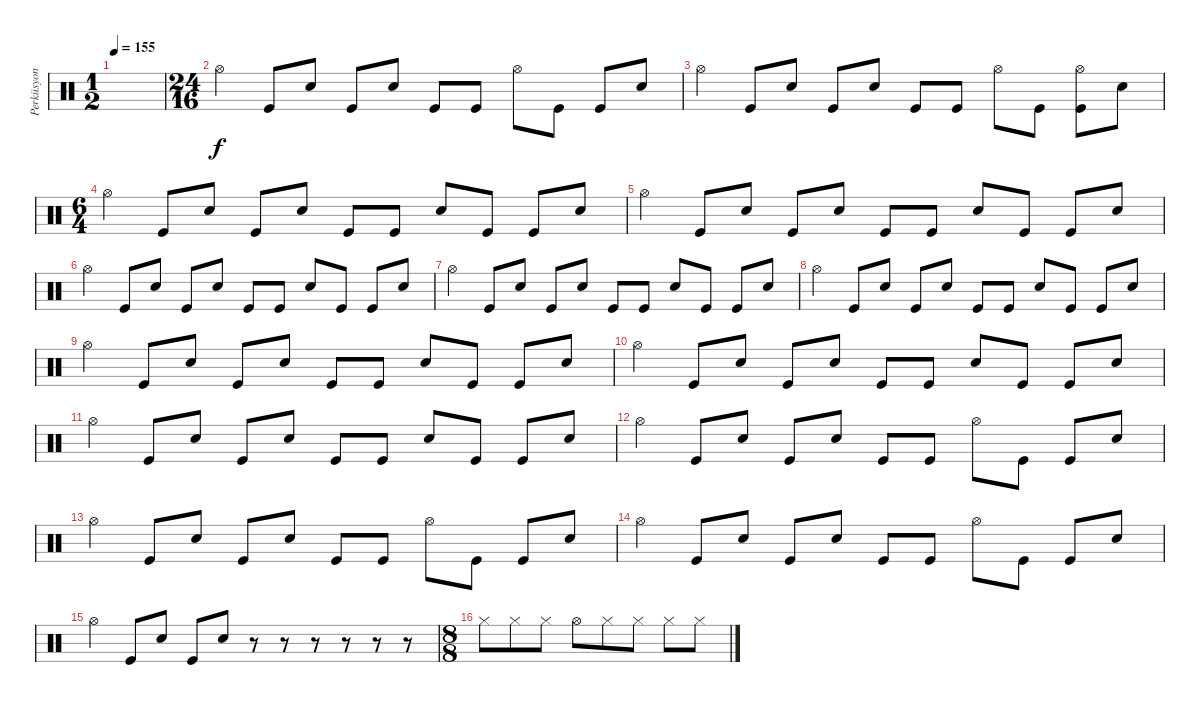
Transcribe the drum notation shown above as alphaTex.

\track ("Perküsyon" "Perküsyon") {instrument percussion}
\staff {score}
\articulation defaults
\ts (1 2)
\tempo 155
\clef neutral
\ks c
|
\ts (24 16)
"Hi-Hat (open)".4 "Kick (hit)".8 "Electric Snare (hit)".8 "Kick (hit)".8 "Electric Snare (hit)".8 "Kick (hit)".8 "Kick (hit)".8 "Hi-Hat (open)".8 "Kick (hit)".8 "Kick (hit)".8 "Electric Snare (hit)".8 |
"Hi-Hat (open)".4 "Kick (hit)".8 "Electric Snare (hit)".8 "Kick (hit)".8 "Electric Snare (hit)".8 "Kick (hit)".8 "Kick (hit)".8 "Hi-Hat (open)".8 "Kick (hit)".8 ("Hi-Hat (open)" "Kick (hit)").8 "Electric Snare (hit)".8 |
\ts (6 4)
"Hi-Hat (open)".4 "Kick (hit)".8 "Electric Snare (hit)".8 "Kick (hit)".8 "Electric Snare (hit)".8 "Kick (hit)".8 "Kick (hit)".8 "Electric Snare (hit)".8 "Kick (hit)".8 "Kick (hit)".8 "Electric Snare (hit)".8 |
"Hi-Hat (open)".4 "Kick (hit)".8 "Electric Snare (hit)".8 "Kick (hit)".8 "Electric Snare (hit)".8 "Kick (hit)".8 "Kick (hit)".8 "Electric Snare (hit)".8 "Kick (hit)".8 "Kick (hit)".8 "Electric Snare (hit)".8 |
"Hi-Hat (open)".4 "Kick (hit)".8 "Electric Snare (hit)".8 "Kick (hit)".8 "Electric Snare (hit)".8 "Kick (hit)".8 "Kick (hit)".8 "Electric Snare (hit)".8 "Kick (hit)".8 "Kick (hit)".8 "Electric Snare (hit)".8 |
"Hi-Hat (open)".4 "Kick (hit)".8 "Electric Snare (hit)".8 "Kick (hit)".8 "Electric Snare (hit)".8 "Kick (hit)".8 "Kick (hit)".8 "Electric Snare (hit)".8 "Kick (hit)".8 "Kick (hit)".8 "Electric Snare (hit)".8 |
"Hi-Hat (open)".4 "Kick (hit)".8 "Electric Snare (hit)".8 "Kick (hit)".8 "Electric Snare (hit)".8 "Kick (hit)".8 "Kick (hit)".8 "Electric Snare (hit)".8 "Kick (hit)".8 "Kick (hit)".8 "Electric Snare (hit)".8 |
"Hi-Hat (open)".4 "Kick (hit)".8 "Electric Snare (hit)".8 "Kick (hit)".8 "Electric Snare (hit)".8 "Kick (hit)".8 "Kick (hit)".8 "Electric Snare (hit)".8 "Kick (hit)".8 "Kick (hit)".8 "Electric Snare (hit)".8 |
"Hi-Hat (open)".4 "Kick (hit)".8 "Electric Snare (hit)".8 "Kick (hit)".8 "Electric Snare (hit)".8 "Kick (hit)".8 "Kick (hit)".8 "Electric Snare (hit)".8 "Kick (hit)".8 "Kick (hit)".8 "Electric Snare (hit)".8 |
"Hi-Hat (open)".4 "Kick (hit)".8 "Electric Snare (hit)".8 "Kick (hit)".8 "Electric Snare (hit)".8 "Kick (hit)".8 "Kick (hit)".8 "Electric Snare (hit)".8 "Kick (hit)".8 "Kick (hit)".8 "Electric Snare (hit)".8 |
"Hi-Hat (open)".4 "Kick (hit)".8 "Electric Snare (hit)".8 "Kick (hit)".8 "Electric Snare (hit)".8 "Kick (hit)".8 "Kick (hit)".8 "Hi-Hat (open)".8 "Kick (hit)".8 "Kick (hit)".8 "Electric Snare (hit)".8 |
"Hi-Hat (open)".4 "Kick (hit)".8 "Electric Snare (hit)".8 "Kick (hit)".8 "Electric Snare (hit)".8 "Kick (hit)".8 "Kick (hit)".8 "Hi-Hat (open)".8 "Kick (hit)".8 "Kick (hit)".8 "Electric Snare (hit)".8 |
"Hi-Hat (open)".4 "Kick (hit)".8 "Electric Snare (hit)".8 "Kick (hit)".8 "Electric Snare (hit)".8 "Kick (hit)".8 "Kick (hit)".8 "Hi-Hat (open)".8 "Kick (hit)".8 "Kick (hit)".8 "Electric Snare (hit)".8 |
"Hi-Hat (open)".4 "Kick (hit)".8 "Electric Snare (hit)".8 "Kick (hit)".8 "Electric Snare (hit)".8 r.8 r.8 r.8 r.8 r.8 r.8 |
\ts (8 8)
"Hi-Hat (closed)".8 "Hi-Hat (closed)".8 "Hi-Hat (closed)".8 "Hi-Hat (open)".8 "Hi-Hat (closed)".8 "Hi-Hat (closed)".8 "Hi-Hat (closed)".8 "Hi-Hat (closed)".8
